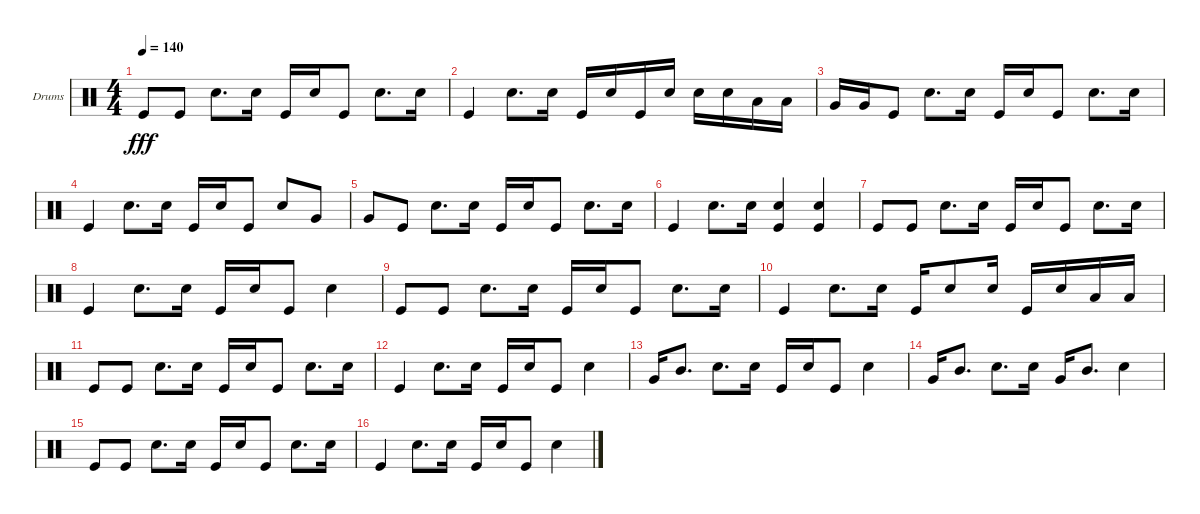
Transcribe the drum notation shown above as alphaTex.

\defaultSystemsLayout 4
\bracketExtendMode groupsimilarinstruments
\firstSystemTrackNameOrientation horizontal
\otherSystemsTrackNameOrientation horizontal
\track ("Helders" "Drums") {instrument percussion}
\staff {score}
\articulation defaults
\ts (4 4)
\tempo 140
\clef neutral
\ks c "Kick (hit)".8{dy fff} "Kick (hit)".8 "Snare (hit) 2".8{d} "Snare (hit) 2".16 "Kick (hit)".16 "Snare (hit) 2".16 "Kick (hit)".8 "Snare (hit) 2".8{d} "Snare (hit) 2".16
|
"Kick (hit)".4 "Snare (hit) 2".8{d} "Snare (hit) 2".16 "Kick (hit)".16 "Snare (hit) 2".16 "Kick (hit)".16 "Snare (hit) 2".16 "Snare (hit) 2".16 "Snare (hit) 2".16 "Low Tom (hit)".16 "Low Tom (hit)".16 |
"Very Low Tom (hit)".16 "Very Low Tom (hit)".16 "Kick (hit)".8 "Snare (hit) 2".8{d} "Snare (hit) 2".16 "Kick (hit)".16 "Snare (hit) 2".16 "Kick (hit)".8 "Snare (hit) 2".8{d} "Snare (hit) 2".16 |
"Kick (hit)".4 "Snare (hit) 2".8{d} "Snare (hit) 2".16 "Kick (hit)".16 "Snare (hit) 2".16 "Kick (hit)".8 "Snare (hit) 2".8 "Very Low Tom (hit)".8 |
"Very Low Tom (hit)".8 "Kick (hit)".8 "Snare (hit) 2".8{d} "Snare (hit) 2".16 "Kick (hit)".16 "Snare (hit) 2".16 "Kick (hit)".8 "Snare (hit) 2".8{d} "Snare (hit) 2".16 |
"Kick (hit)".4 "Snare (hit) 2".8{d} "Snare (hit) 2".16 ("Snare (hit) 2" "Kick (hit)").4 ("Snare (hit) 2" "Kick (hit)").4 |
"Kick (hit)".8 "Kick (hit)".8 "Snare (hit) 2".8{d} "Snare (hit) 2".16 "Kick (hit)".16 "Snare (hit) 2".16 "Kick (hit)".8 "Snare (hit) 2".8{d} "Snare (hit) 2".16 |
"Kick (hit)".4 "Snare (hit) 2".8{d} "Snare (hit) 2".16 "Kick (hit)".16 "Snare (hit) 2".16 "Kick (hit)".8 "Snare (hit) 2".4 |
"Kick (hit)".8 "Kick (hit)".8 "Snare (hit) 2".8{d} "Snare (hit) 2".16 "Kick (hit)".16 "Snare (hit) 2".16 "Kick (hit)".8 "Snare (hit) 2".8{d} "Snare (hit) 2".16 |
"Kick (hit)".4 "Snare (hit) 2".8{d} "Snare (hit) 2".16 "Kick (hit)".16 "Snare (hit) 2".8 "Snare (hit) 2".16 "Kick (hit)".16 "Snare (hit) 2".16 "Low Tom (hit)".16 "Low Tom (hit)".16 |
"Kick (hit)".8 "Kick (hit)".8 "Snare (hit) 2".8{d} "Snare (hit) 2".16 "Kick (hit)".16 "Snare (hit) 2".16 "Kick (hit)".8 "Snare (hit) 2".8{d} "Snare (hit) 2".16 |
"Kick (hit)".4 "Snare (hit) 2".8{d} "Snare (hit) 2".16 "Kick (hit)".16 "Snare (hit) 2".16 "Kick (hit)".8 "Snare (hit) 2".4 |
"Very Low Tom (hit)".16 "Mid Tom (hit)".8{d} "Snare (hit) 2".8{d} "Snare (hit) 2".16 "Kick (hit)".16 "Snare (hit) 2".16 "Kick (hit)".8 "Snare (hit) 2".4 |
"Very Low Tom (hit)".16 "Mid Tom (hit)".8{d} "Snare (hit) 2".8{d} "Snare (hit) 2".16 "Very Low Tom (hit)".16 "Mid Tom (hit)".8{d} "Snare (hit) 2".4 |
"Kick (hit)".8 "Kick (hit)".8 "Snare (hit) 2".8{d} "Snare (hit) 2".16 "Kick (hit)".16 "Snare (hit) 2".16 "Kick (hit)".8 "Snare (hit) 2".8{d} "Snare (hit) 2".16 |
"Kick (hit)".4 "Snare (hit) 2".8{d} "Snare (hit) 2".16 "Kick (hit)".16 "Snare (hit) 2".16 "Kick (hit)".8 "Snare (hit) 2".4
